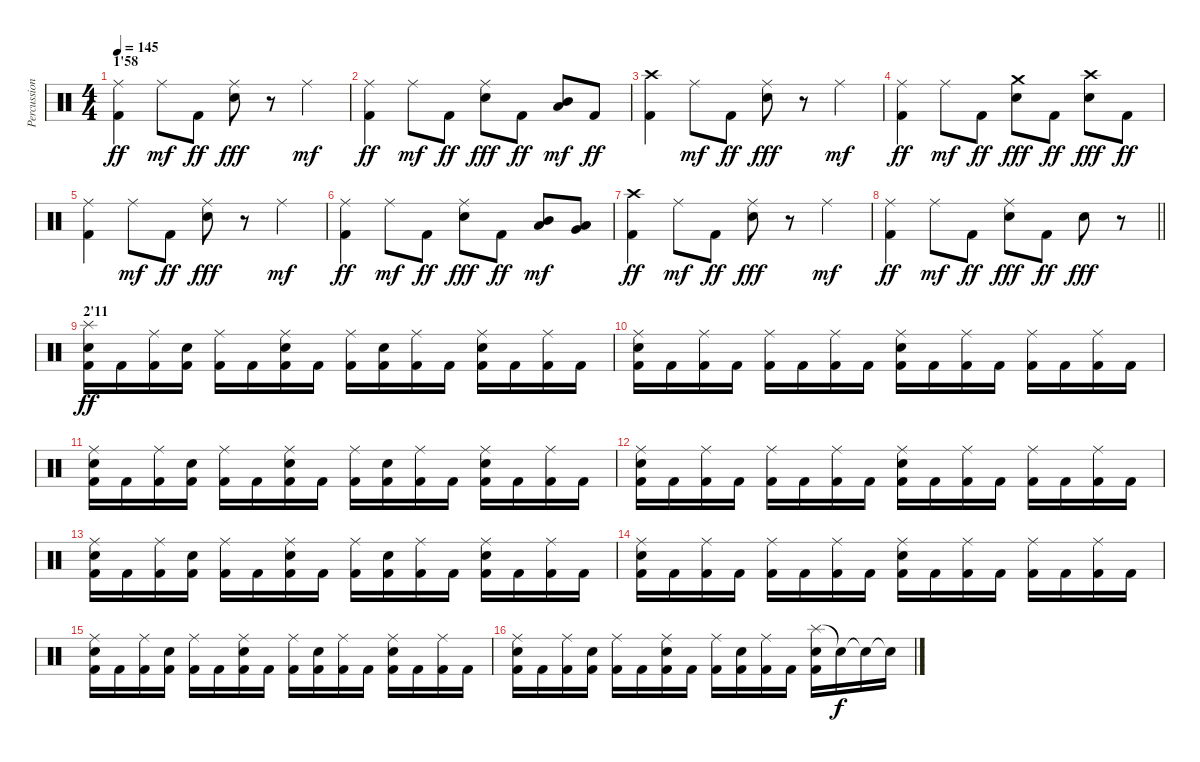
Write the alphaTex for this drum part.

\track ("Percussions" "Percussion") {instrument percussion}
\staff {score}
\articulation defaults
\ts (4 4)
\section ("" "1'58")
\tempo 145
\clef neutral
\ks c
("Ride (middle)" "Kick (hit) 2").4{dy ff} "Ride (middle)".8{dy mf} "Kick (hit) 2".8{dy ff} ("Ride (middle)" "Snare (hit) 2").8{dy fff} r.8 "Ride (middle)".4{dy mf} |
("Ride (middle)" "Kick (hit) 2").4{dy ff} "Ride (middle)".8{dy mf} "Kick (hit) 2".8{dy ff} ("Ride (middle)" "Snare (hit) 2").8{dy fff} "Kick (hit) 2".8{dy ff} ("Mid Tom (hit)" "Low Tom (hit)").8{dy mf} "Kick (hit) 2".8{dy ff} |
("Crash high (hit)" "Kick (hit) 2").4 "Ride (middle)".8{dy mf} "Kick (hit) 2".8{dy ff} ("Ride (middle)" "Snare (hit) 2").8{dy fff} r.8 "Ride (middle)".4{dy mf} |
("Ride (middle)" "Kick (hit) 2").4{dy ff} "Ride (middle)".8{dy mf} "Kick (hit) 2".8{dy ff} ("Crash medium (hit)" "Snare (hit) 2").8{dy fff} "Kick (hit) 2".8{dy ff} ("Crash high (hit)" "Snare (hit) 2").8{dy fff} "Kick (hit) 2".8{dy ff} |
("Ride (middle)" "Kick (hit) 2").4 "Ride (middle)".8{dy mf} "Kick (hit) 2".8{dy ff} ("Ride (middle)" "Snare (hit) 2").8{dy fff} r.8 "Ride (middle)".4{dy mf} |
("Ride (middle)" "Kick (hit) 2").4{dy ff} "Ride (middle)".8{dy mf} "Kick (hit) 2".8{dy ff} ("Ride (middle)" "Snare (hit) 2").8{dy fff} "Kick (hit) 2".8{dy ff} ("Mid Tom (hit)" "Low Tom (hit)").8{dy mf} ("Low Tom (hit)" "Very Low Tom (hit)").8 |
("Crash high (hit)" "Kick (hit) 2").4{dy ff} "Ride (middle)".8{dy mf} "Kick (hit) 2".8{dy ff} ("Ride (middle)" "Snare (hit) 2").8{dy fff} r.8 "Ride (middle)".4{dy mf} |
\barLineRight lightlight
("Ride (middle)" "Kick (hit) 2").4{dy ff} "Ride (middle)".8{dy mf} "Kick (hit) 2".8{dy ff} ("Ride (middle)" "Snare (hit) 2").8{dy fff} "Kick (hit) 2".8{dy ff} "Snare (hit) 2".8{dy fff} r.8 |
\section ("" "2'11")
("Splash (hit)" "Snare (hit) 2" "Kick (hit) 2").16{dy ff} "Kick (hit) 2".16 ("Ride (middle)" "Kick (hit) 2").16 ("Snare (hit) 2" "Kick (hit) 2").16 ("Ride (middle)" "Kick (hit) 2").16 "Kick (hit) 2".16 ("Ride (middle)" "Snare (hit) 2" "Kick (hit) 2").16 "Kick (hit) 2".16 ("Ride (middle)" "Kick (hit) 2").16 ("Snare (hit) 2" "Kick (hit) 2").16 ("Ride (middle)" "Kick (hit) 2").16 "Kick (hit) 2".16 ("Ride (middle)" "Snare (hit) 2" "Kick (hit) 2").16 "Kick (hit) 2".16 ("Ride (middle)" "Kick (hit) 2").16 "Kick (hit) 2".16 |
("Ride (middle)" "Snare (hit) 2" "Kick (hit) 2").16 "Kick (hit) 2".16 ("Ride (middle)" "Kick (hit) 2").16 "Kick (hit) 2".16 ("Ride (middle)" "Kick (hit) 2").16 "Kick (hit) 2".16 ("Ride (middle)" "Kick (hit) 2").16 "Kick (hit) 2".16 ("Ride (middle)" "Snare (hit) 2" "Kick (hit) 2").16 "Kick (hit) 2".16 ("Ride (middle)" "Kick (hit) 2").16 "Kick (hit) 2".16 ("Ride (middle)" "Kick (hit) 2").16 "Kick (hit) 2".16 ("Ride (middle)" "Kick (hit) 2").16 "Kick (hit) 2".16 |
("Ride (middle)" "Snare (hit) 2" "Kick (hit) 2").16 "Kick (hit) 2".16 ("Ride (middle)" "Kick (hit) 2").16 ("Snare (hit) 2" "Kick (hit) 2").16 ("Ride (middle)" "Kick (hit) 2").16 "Kick (hit) 2".16 ("Ride (middle)" "Snare (hit) 2" "Kick (hit) 2").16 "Kick (hit) 2".16 ("Ride (middle)" "Kick (hit) 2").16 ("Snare (hit) 2" "Kick (hit) 2").16 ("Ride (middle)" "Kick (hit) 2").16 "Kick (hit) 2".16 ("Ride (middle)" "Snare (hit) 2" "Kick (hit) 2").16 "Kick (hit) 2".16 ("Ride (middle)" "Kick (hit) 2").16 "Kick (hit) 2".16 |
("Ride (middle)" "Snare (hit) 2" "Kick (hit) 2").16 "Kick (hit) 2".16 ("Ride (middle)" "Kick (hit) 2").16 "Kick (hit) 2".16 ("Ride (middle)" "Kick (hit) 2").16 "Kick (hit) 2".16 ("Ride (middle)" "Kick (hit) 2").16 "Kick (hit) 2".16 ("Ride (middle)" "Snare (hit) 2" "Kick (hit) 2").16 "Kick (hit) 2".16 ("Ride (middle)" "Kick (hit) 2").16 "Kick (hit) 2".16 ("Ride (middle)" "Kick (hit) 2").16 "Kick (hit) 2".16 ("Ride (middle)" "Kick (hit) 2").16 "Kick (hit) 2".16 |
("Ride (middle)" "Snare (hit) 2" "Kick (hit) 2").16 "Kick (hit) 2".16 ("Ride (middle)" "Kick (hit) 2").16 ("Snare (hit) 2" "Kick (hit) 2").16 ("Ride (middle)" "Kick (hit) 2").16 "Kick (hit) 2".16 ("Ride (middle)" "Snare (hit) 2" "Kick (hit) 2").16 "Kick (hit) 2".16 ("Ride (middle)" "Kick (hit) 2").16 ("Snare (hit) 2" "Kick (hit) 2").16 ("Ride (middle)" "Kick (hit) 2").16 "Kick (hit) 2".16 ("Ride (middle)" "Snare (hit) 2" "Kick (hit) 2").16 "Kick (hit) 2".16 ("Ride (middle)" "Kick (hit) 2").16 "Kick (hit) 2".16 |
("Ride (middle)" "Snare (hit) 2" "Kick (hit) 2").16 "Kick (hit) 2".16 ("Ride (middle)" "Kick (hit) 2").16 "Kick (hit) 2".16 ("Ride (middle)" "Kick (hit) 2").16 "Kick (hit) 2".16 ("Ride (middle)" "Kick (hit) 2").16 "Kick (hit) 2".16 ("Ride (middle)" "Snare (hit) 2" "Kick (hit) 2").16 "Kick (hit) 2".16 ("Ride (middle)" "Kick (hit) 2").16 "Kick (hit) 2".16 ("Ride (middle)" "Kick (hit) 2").16 "Kick (hit) 2".16 ("Ride (middle)" "Kick (hit) 2").16 "Kick (hit) 2".16 |
("Ride (middle)" "Snare (hit) 2" "Kick (hit) 2").16 "Kick (hit) 2".16 ("Ride (middle)" "Kick (hit) 2").16 ("Snare (hit) 2" "Kick (hit) 2").16 ("Ride (middle)" "Kick (hit) 2").16 "Kick (hit) 2".16 ("Ride (middle)" "Snare (hit) 2" "Kick (hit) 2").16 "Kick (hit) 2".16 ("Ride (middle)" "Kick (hit) 2").16 ("Snare (hit) 2" "Kick (hit) 2").16 ("Ride (middle)" "Kick (hit) 2").16 "Kick (hit) 2".16 ("Ride (middle)" "Snare (hit) 2" "Kick (hit) 2").16 "Kick (hit) 2".16 ("Ride (middle)" "Kick (hit) 2").16 "Kick (hit) 2".16 |
("Ride (middle)" "Snare (hit) 2" "Kick (hit) 2").16 "Kick (hit) 2".16 ("Ride (middle)" "Kick (hit) 2").16 ("Snare (hit) 2" "Kick (hit) 2").16 ("Ride (middle)" "Kick (hit) 2").16 "Kick (hit) 2".16 ("Ride (middle)" "Snare (hit) 2" "Kick (hit) 2").16 "Kick (hit) 2".16 ("Ride (middle)" "Kick (hit) 2").16 ("Snare (hit) 2" "Kick (hit) 2").16 ("Ride (middle)" "Kick (hit) 2").16 "Kick (hit) 2".16 ("Splash (hit)" "Snare (hit) 2" "Kick (hit) 2").16 "Snare (hit)"{t}.16{dy f} "Snare (hit)"{t}.16 "Snare (hit)"{t}.16
